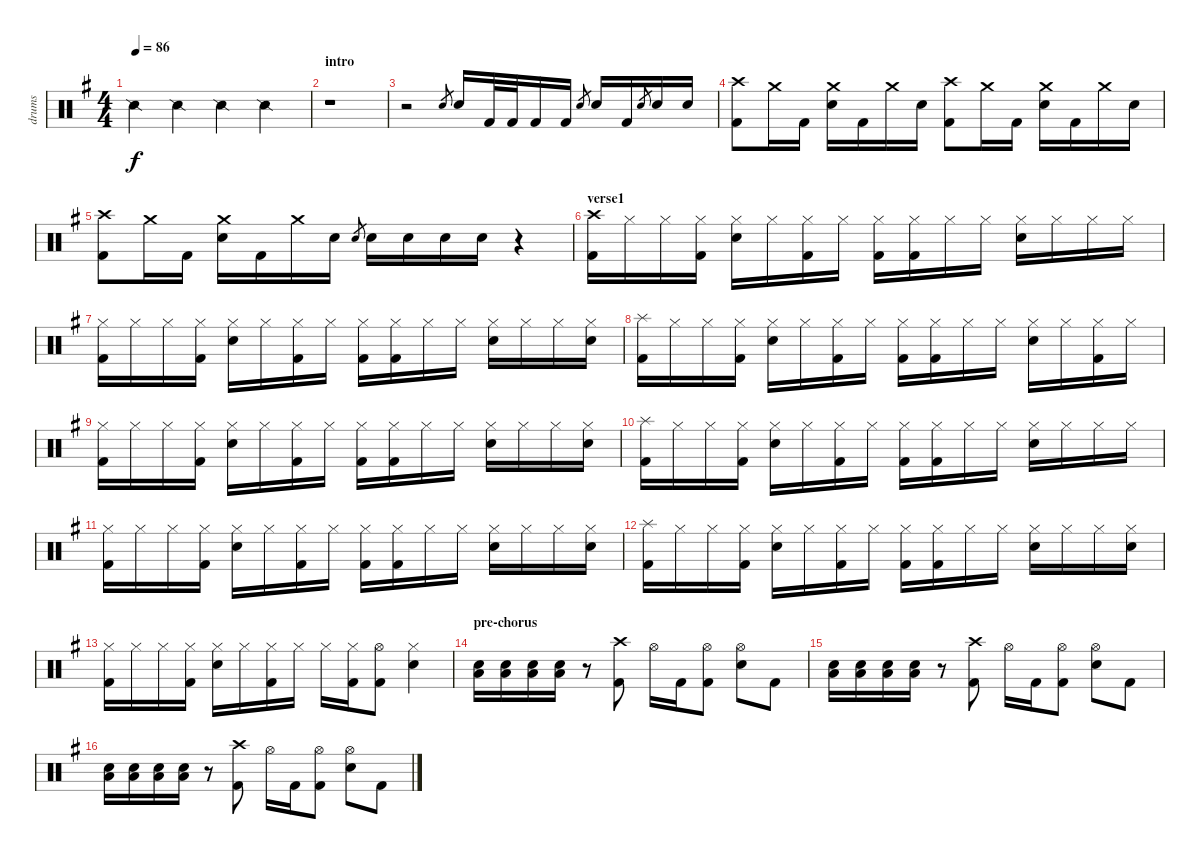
\track ("drums" "drums") {instrument percussion}
\staff {score}
\articulation defaults
\ts (4 4)
\tempo 86
\clef neutral
\ks eminor "Snare (side stick) 2".4{dy f} "Snare (side stick) 2".4 "Snare (side stick) 2".4 "Snare (side stick) 2".4
|
\section ("" "intro")
r.1 |
r.2 "Electric Snare (hit)".8{gr} "Electric Snare (hit)".16 "Kick (hit) 2".32 "Kick (hit) 2".32 "Kick (hit) 2".16 "Kick (hit) 2".16 "Electric Snare (hit)".8{gr} "Electric Snare (hit)".16 "Kick (hit) 2".16 "Electric Snare (hit)".8{gr} "Electric Snare (hit)".16 "Electric Snare (hit)".16 |
("Crash high (hit)" "Kick (hit) 2").8 "Crash medium (hit)".16 "Kick (hit) 2".16 ("Crash medium (hit)" "Electric Snare (hit)").16 "Kick (hit) 2".16 "Crash medium (hit)".16 "Electric Snare (hit)".16 ("Crash high (hit)" "Kick (hit) 2").8 "Crash medium (hit)".16 "Kick (hit) 2".16 ("Crash medium (hit)" "Electric Snare (hit)").16 "Kick (hit) 2".16 "Crash medium (hit)".16 "Electric Snare (hit)".16 |
("Crash high (hit)" "Kick (hit) 2").8 "Crash medium (hit)".16 "Kick (hit) 2".16 ("Crash medium (hit)" "Electric Snare (hit)").16 "Kick (hit) 2".16 "Crash medium (hit)".16 "Electric Snare (hit)".16 "Electric Snare (hit)".8{gr} "Electric Snare (hit)".16 "Electric Snare (hit)".16 "Electric Snare (hit)".16 "Electric Snare (hit)".16 r.4 |
\section ("" "verse1")
("Crash high (hit)" "Kick (hit) 2").16 "Hi-Hat (closed)".16 "Hi-Hat (closed)".16 ("Hi-Hat (closed)" "Kick (hit) 2").16 ("Hi-Hat (closed)" "Electric Snare (hit)").16 "Hi-Hat (closed)".16 ("Hi-Hat (closed)" "Kick (hit) 2").16 "Hi-Hat (closed)".16 ("Hi-Hat (closed)" "Kick (hit) 2").16 ("Hi-Hat (closed)" "Kick (hit) 2").16 "Hi-Hat (closed)".16 "Hi-Hat (closed)".16 ("Hi-Hat (closed)" "Electric Snare (hit)").16 "Hi-Hat (closed)".16 "Hi-Hat (closed)".16 "Hi-Hat (closed)".16 |
("Hi-Hat (closed)" "Kick (hit) 2").16 "Hi-Hat (closed)".16 "Hi-Hat (closed)".16 ("Hi-Hat (closed)" "Kick (hit) 2").16 ("Hi-Hat (closed)" "Electric Snare (hit)").16 "Hi-Hat (closed)".16 ("Hi-Hat (closed)" "Kick (hit) 2").16 "Hi-Hat (closed)".16 ("Hi-Hat (closed)" "Kick (hit) 2").16 ("Hi-Hat (closed)" "Kick (hit) 2").16 "Hi-Hat (closed)".16 "Hi-Hat (closed)".16 ("Hi-Hat (closed)" "Electric Snare (hit)").16 "Hi-Hat (closed)".16 "Hi-Hat (closed)".16 ("Hi-Hat (closed)" "Electric Snare (hit)").16 |
("Splash (hit)" "Kick (hit) 2").16 "Hi-Hat (closed)".16 "Hi-Hat (closed)".16 ("Hi-Hat (closed)" "Kick (hit) 2").16 ("Hi-Hat (closed)" "Electric Snare (hit)").16 "Hi-Hat (closed)".16 ("Hi-Hat (closed)" "Kick (hit) 2").16 "Hi-Hat (closed)".16 ("Hi-Hat (closed)" "Kick (hit) 2").16 ("Hi-Hat (closed)" "Kick (hit) 2").16 "Hi-Hat (closed)".16 "Hi-Hat (closed)".16 ("Hi-Hat (closed)" "Electric Snare (hit)").16 "Hi-Hat (closed)".16 ("Hi-Hat (closed)" "Kick (hit) 2").16 "Hi-Hat (closed)".16 |
("Hi-Hat (closed)" "Kick (hit) 2").16 "Hi-Hat (closed)".16 "Hi-Hat (closed)".16 ("Hi-Hat (closed)" "Kick (hit) 2").16 ("Hi-Hat (closed)" "Electric Snare (hit)").16 "Hi-Hat (closed)".16 ("Hi-Hat (closed)" "Kick (hit) 2").16 "Hi-Hat (closed)".16 ("Hi-Hat (closed)" "Kick (hit) 2").16 ("Hi-Hat (closed)" "Kick (hit) 2").16 "Hi-Hat (closed)".16 "Hi-Hat (closed)".16 ("Hi-Hat (closed)" "Electric Snare (hit)").16 "Hi-Hat (closed)".16 "Hi-Hat (closed)".16 ("Hi-Hat (closed)" "Electric Snare (hit)").16 |
("Splash (hit)" "Kick (hit) 2").16 "Hi-Hat (closed)".16 "Hi-Hat (closed)".16 ("Hi-Hat (closed)" "Kick (hit) 2").16 ("Hi-Hat (closed)" "Electric Snare (hit)").16 "Hi-Hat (closed)".16 ("Hi-Hat (closed)" "Kick (hit) 2").16 "Hi-Hat (closed)".16 ("Hi-Hat (closed)" "Kick (hit) 2").16 ("Hi-Hat (closed)" "Kick (hit) 2").16 "Hi-Hat (closed)".16 "Hi-Hat (closed)".16 ("Hi-Hat (closed)" "Electric Snare (hit)").16 "Hi-Hat (closed)".16 "Hi-Hat (closed)".16 "Hi-Hat (closed)".16 |
("Hi-Hat (closed)" "Kick (hit) 2").16 "Hi-Hat (closed)".16 "Hi-Hat (closed)".16 ("Hi-Hat (closed)" "Kick (hit) 2").16 ("Hi-Hat (closed)" "Electric Snare (hit)").16 "Hi-Hat (closed)".16 ("Hi-Hat (closed)" "Kick (hit) 2").16 "Hi-Hat (closed)".16 ("Hi-Hat (closed)" "Kick (hit) 2").16 ("Hi-Hat (closed)" "Kick (hit) 2").16 "Hi-Hat (closed)".16 "Hi-Hat (closed)".16 ("Hi-Hat (closed)" "Electric Snare (hit)").16 "Hi-Hat (closed)".16 "Hi-Hat (closed)".16 ("Hi-Hat (closed)" "Electric Snare (hit)").16 |
("Splash (hit)" "Kick (hit) 2").16 "Hi-Hat (closed)".16 "Hi-Hat (closed)".16 ("Hi-Hat (closed)" "Kick (hit) 2").16 ("Hi-Hat (closed)" "Electric Snare (hit)").16 "Hi-Hat (closed)".16 ("Hi-Hat (closed)" "Kick (hit) 2").16 "Hi-Hat (closed)".16 ("Hi-Hat (closed)" "Kick (hit) 2").16 ("Hi-Hat (closed)" "Kick (hit) 2").16 "Hi-Hat (closed)".16 "Hi-Hat (closed)".16 ("Hi-Hat (closed)" "Electric Snare (hit)").16 "Hi-Hat (closed)".16 "Hi-Hat (closed)".16 ("Hi-Hat (closed)" "Electric Snare (hit)").16 |
("Hi-Hat (closed)" "Kick (hit) 2").16 "Hi-Hat (closed)".16 "Hi-Hat (closed)".16 ("Hi-Hat (closed)" "Kick (hit) 2").16 ("Hi-Hat (closed)" "Electric Snare (hit)").16 "Hi-Hat (closed)".16 ("Hi-Hat (closed)" "Kick (hit) 2").16 "Hi-Hat (closed)".16 "Hi-Hat (closed)".16 ("Hi-Hat (closed)" "Kick (hit) 2").16 ("Hi-Hat (open)" "Kick (hit) 2").8 ("Hi-Hat (closed)" "Electric Snare (hit)").4 |
\section ("" "pre-chorus")
("Electric Snare (hit)" "Low Floor Tom (hit)").16 ("Electric Snare (hit)" "Low Floor Tom (hit)").16 ("Electric Snare (hit)" "Low Floor Tom (hit)").16 ("Electric Snare (hit)" "Low Floor Tom (hit)").16 r.8 ("Crash high (hit)" "Kick (hit) 2").8 "Hi-Hat (open)".16 "Kick (hit) 2".16 ("Hi-Hat (open)" "Kick (hit) 2").8 ("Hi-Hat (open)" "Electric Snare (hit)").8 "Kick (hit) 2".8 |
("Electric Snare (hit)" "Low Floor Tom (hit)").16 ("Electric Snare (hit)" "Low Floor Tom (hit)").16 ("Electric Snare (hit)" "Low Floor Tom (hit)").16 ("Electric Snare (hit)" "Low Floor Tom (hit)").16 r.8 ("Crash high (hit)" "Kick (hit) 2").8 "Hi-Hat (open)".16 "Kick (hit) 2".16 ("Hi-Hat (open)" "Kick (hit) 2").8 ("Hi-Hat (open)" "Electric Snare (hit)").8 "Kick (hit) 2".8 |
("Electric Snare (hit)" "Low Floor Tom (hit)").16 ("Electric Snare (hit)" "Low Floor Tom (hit)").16 ("Electric Snare (hit)" "Low Floor Tom (hit)").16 ("Electric Snare (hit)" "Low Floor Tom (hit)").16 r.8 ("Crash high (hit)" "Kick (hit) 2").8 "Hi-Hat (open)".16 "Kick (hit) 2".16 ("Hi-Hat (open)" "Kick (hit) 2").8 ("Hi-Hat (open)" "Electric Snare (hit)").8 "Kick (hit) 2".8
